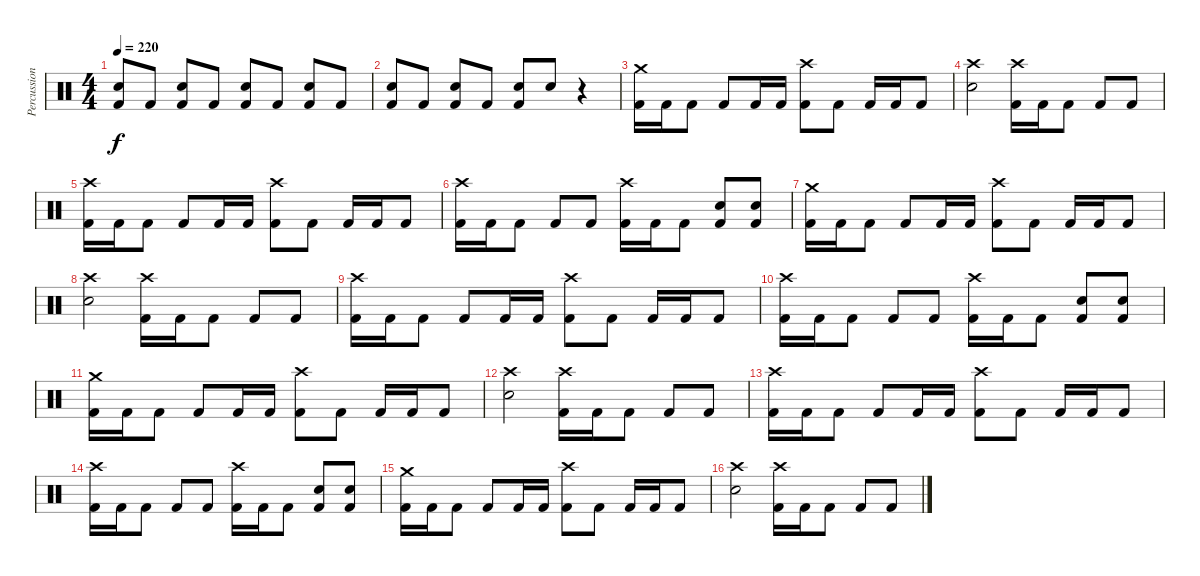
\track ("Percussions" "Percussion") {instrument percussion}
\staff {score}
\articulation defaults
\ts (4 4)
\tempo 220
\clef neutral
\ks c
("Electric Snare (hit)" "Kick (hit) 2").8{dy f} "Kick (hit) 2".8 ("Electric Snare (hit)" "Kick (hit) 2").8 "Kick (hit) 2".8 ("Electric Snare (hit)" "Kick (hit) 2").8 "Kick (hit) 2".8 ("Electric Snare (hit)" "Kick (hit) 2").8 "Kick (hit) 2".8 |
("Electric Snare (hit)" "Kick (hit) 2").8 "Kick (hit) 2".8 ("Electric Snare (hit)" "Kick (hit) 2").8 "Kick (hit) 2".8 ("Electric Snare (hit)" "Kick (hit) 2").8 "Electric Snare (hit)".8 r.4 |
("Crash medium (hit)" "Kick (hit) 2").16 "Kick (hit) 2".16 "Kick (hit) 2".8 "Kick (hit) 2".8 "Kick (hit) 2".16 "Kick (hit) 2".16 ("Crash high (hit)" "Kick (hit) 2").8 "Kick (hit) 2".8 "Kick (hit) 2".16 "Kick (hit) 2".16 "Kick (hit) 2".8 |
("Crash high (hit)" "Electric Snare (hit)").2 ("Crash high (hit)" "Kick (hit) 2").16 "Kick (hit) 2".16 "Kick (hit) 2".8 "Kick (hit) 2".8 "Kick (hit) 2".8 |
("Crash high (hit)" "Kick (hit) 2").16 "Kick (hit) 2".16 "Kick (hit) 2".8 "Kick (hit) 2".8 "Kick (hit) 2".16 "Kick (hit) 2".16 ("Crash high (hit)" "Kick (hit) 2").8 "Kick (hit) 2".8 "Kick (hit) 2".16 "Kick (hit) 2".16 "Kick (hit) 2".8 |
("Crash high (hit)" "Kick (hit) 2").16 "Kick (hit) 2".16 "Kick (hit) 2".8 "Kick (hit) 2".8 "Kick (hit) 2".8 ("Crash high (hit)" "Kick (hit) 2").16 "Kick (hit) 2".16 "Kick (hit) 2".8 ("Electric Snare (hit)" "Kick (hit) 2").8 ("Electric Snare (hit)" "Kick (hit) 2").8 |
("Crash medium (hit)" "Kick (hit) 2").16 "Kick (hit) 2".16 "Kick (hit) 2".8 "Kick (hit) 2".8 "Kick (hit) 2".16 "Kick (hit) 2".16 ("Crash high (hit)" "Kick (hit) 2").8 "Kick (hit) 2".8 "Kick (hit) 2".16 "Kick (hit) 2".16 "Kick (hit) 2".8 |
("Crash high (hit)" "Electric Snare (hit)").2 ("Crash high (hit)" "Kick (hit) 2").16 "Kick (hit) 2".16 "Kick (hit) 2".8 "Kick (hit) 2".8 "Kick (hit) 2".8 |
("Crash high (hit)" "Kick (hit) 2").16 "Kick (hit) 2".16 "Kick (hit) 2".8 "Kick (hit) 2".8 "Kick (hit) 2".16 "Kick (hit) 2".16 ("Crash high (hit)" "Kick (hit) 2").8 "Kick (hit) 2".8 "Kick (hit) 2".16 "Kick (hit) 2".16 "Kick (hit) 2".8 |
("Crash high (hit)" "Kick (hit) 2").16 "Kick (hit) 2".16 "Kick (hit) 2".8 "Kick (hit) 2".8 "Kick (hit) 2".8 ("Crash high (hit)" "Kick (hit) 2").16 "Kick (hit) 2".16 "Kick (hit) 2".8 ("Electric Snare (hit)" "Kick (hit) 2").8 ("Electric Snare (hit)" "Kick (hit) 2").8 |
("Crash medium (hit)" "Kick (hit) 2").16 "Kick (hit) 2".16 "Kick (hit) 2".8 "Kick (hit) 2".8 "Kick (hit) 2".16 "Kick (hit) 2".16 ("Crash high (hit)" "Kick (hit) 2").8 "Kick (hit) 2".8 "Kick (hit) 2".16 "Kick (hit) 2".16 "Kick (hit) 2".8 |
("Crash high (hit)" "Electric Snare (hit)").2 ("Crash high (hit)" "Kick (hit) 2").16 "Kick (hit) 2".16 "Kick (hit) 2".8 "Kick (hit) 2".8 "Kick (hit) 2".8 |
("Crash high (hit)" "Kick (hit) 2").16 "Kick (hit) 2".16 "Kick (hit) 2".8 "Kick (hit) 2".8 "Kick (hit) 2".16 "Kick (hit) 2".16 ("Crash high (hit)" "Kick (hit) 2").8 "Kick (hit) 2".8 "Kick (hit) 2".16 "Kick (hit) 2".16 "Kick (hit) 2".8 |
("Crash high (hit)" "Kick (hit) 2").16 "Kick (hit) 2".16 "Kick (hit) 2".8 "Kick (hit) 2".8 "Kick (hit) 2".8 ("Crash high (hit)" "Kick (hit) 2").16 "Kick (hit) 2".16 "Kick (hit) 2".8 ("Electric Snare (hit)" "Kick (hit) 2").8 ("Electric Snare (hit)" "Kick (hit) 2").8 |
("Crash medium (hit)" "Kick (hit) 2").16 "Kick (hit) 2".16 "Kick (hit) 2".8 "Kick (hit) 2".8 "Kick (hit) 2".16 "Kick (hit) 2".16 ("Crash high (hit)" "Kick (hit) 2").8 "Kick (hit) 2".8 "Kick (hit) 2".16 "Kick (hit) 2".16 "Kick (hit) 2".8 |
("Crash high (hit)" "Electric Snare (hit)").2 ("Crash high (hit)" "Kick (hit) 2").16 "Kick (hit) 2".16 "Kick (hit) 2".8 "Kick (hit) 2".8 "Kick (hit) 2".8
